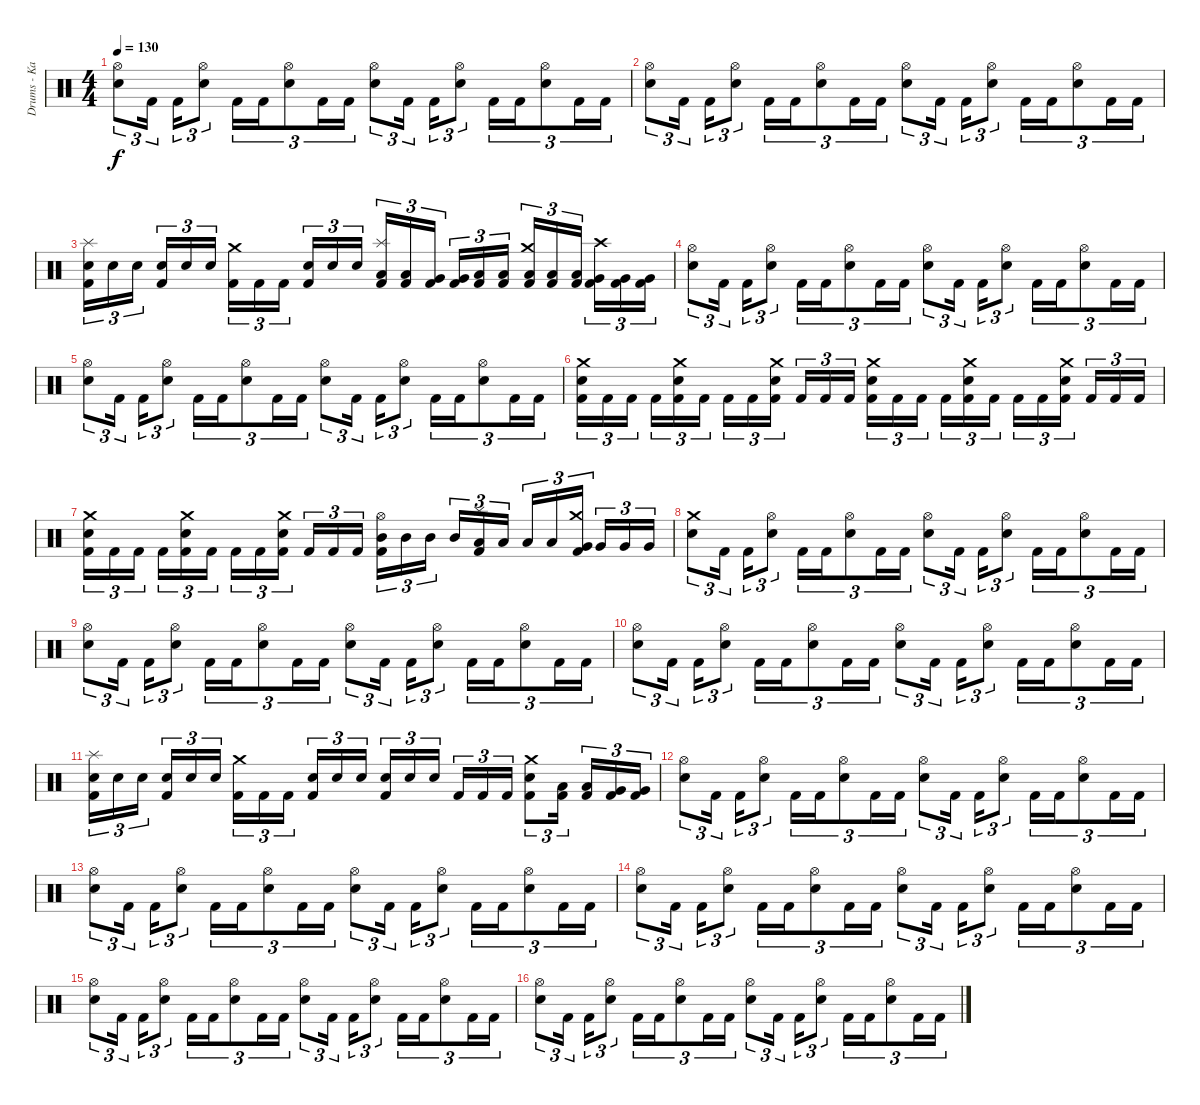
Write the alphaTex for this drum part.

\track ("Drums - Kai Hahto " "Drums - Ka") {instrument percussion}
\staff {score}
\articulation defaults
\ts (4 4)
\tempo 130
\clef neutral
\ks c
("Hi-Hat (open)" "Snare (hit) 2").8{tu (3 2) dy f} "Kick (hit) 2".16{tu (3 2) beam splitsecondary} "Kick (hit) 2".16{tu (3 2)} ("Hi-Hat (open)" "Snare (hit) 2").8{tu (3 2)} "Kick (hit) 2".16{tu (3 2)} "Kick (hit) 2".16{tu (3 2)} ("Hi-Hat (open)" "Snare (hit) 2").8{tu (3 2)} "Kick (hit) 2".16{tu (3 2)} "Kick (hit) 2".16{tu (3 2)} ("Hi-Hat (open)" "Snare (hit) 2").8{tu (3 2)} "Kick (hit) 2".16{tu (3 2) beam splitsecondary} "Kick (hit) 2".16{tu (3 2)} ("Hi-Hat (open)" "Snare (hit) 2").8{tu (3 2)} "Kick (hit) 2".16{tu (3 2)} "Kick (hit) 2".16{tu (3 2)} ("Hi-Hat (open)" "Snare (hit) 2").8{tu (3 2)} "Kick (hit) 2".16{tu (3 2)} "Kick (hit) 2".16{tu (3 2)} |
("Hi-Hat (open)" "Snare (hit) 2").8{tu (3 2)} "Kick (hit) 2".16{tu (3 2) beam splitsecondary} "Kick (hit) 2".16{tu (3 2)} ("Hi-Hat (open)" "Snare (hit) 2").8{tu (3 2)} "Kick (hit) 2".16{tu (3 2)} "Kick (hit) 2".16{tu (3 2)} ("Hi-Hat (open)" "Snare (hit) 2").8{tu (3 2)} "Kick (hit) 2".16{tu (3 2)} "Kick (hit) 2".16{tu (3 2)} ("Hi-Hat (open)" "Snare (hit) 2").8{tu (3 2)} "Kick (hit) 2".16{tu (3 2) beam splitsecondary} "Kick (hit) 2".16{tu (3 2)} ("Hi-Hat (open)" "Snare (hit) 2").8{tu (3 2)} "Kick (hit) 2".16{tu (3 2)} "Kick (hit) 2".16{tu (3 2)} ("Hi-Hat (open)" "Snare (hit) 2").8{tu (3 2)} "Kick (hit) 2".16{tu (3 2)} "Kick (hit) 2".16{tu (3 2)} |
("Splash (hit)" "Snare (hit) 2" "Kick (hit) 2").16{tu (3 2)} "Snare (hit) 2".16{tu (3 2)} "Snare (hit) 2".16{tu (3 2) beam splitsecondary} ("Snare (hit) 2" "Kick (hit) 2").16{tu (3 2)} "Snare (hit) 2".16{tu (3 2)} "Snare (hit) 2".16{tu (3 2)} ("Crash medium (hit)" "Kick (hit) 2").16{tu (3 2)} "Kick (hit) 2".16{tu (3 2)} "Kick (hit) 2".16{tu (3 2) beam splitsecondary} ("Snare (hit) 2" "Kick (hit) 2").16{tu (3 2)} "Snare (hit) 2".16{tu (3 2)} "Snare (hit) 2".16{tu (3 2)} ("Splash (hit)" "Low Tom (hit)" "Kick (hit) 2").16{tu (3 2)} ("Low Tom (hit)" "Kick (hit) 2").16{tu (3 2)} ("Very Low Tom (hit)" "Kick (hit) 2").16{tu (3 2) beam splitsecondary} ("Very Low Tom (hit)" "Kick (hit) 2").16{tu (3 2)} ("Low Floor Tom (hit)" "Kick (hit) 2").16{tu (3 2)} ("Low Floor Tom (hit)" "Kick (hit) 2").16{tu (3 2)} ("Crash medium (hit)" "Low Tom (hit)" "Kick (hit) 2").16{tu (3 2)} ("Low Tom (hit)" "Kick (hit) 2").16{tu (3 2)} ("Low Tom (hit)" "Kick (hit) 2").16{tu (3 2) beam splitsecondary} ("Crash high (hit)" "Very Low Tom (hit)" "Kick (hit) 2").16{tu (3 2)} ("Very Low Tom (hit)" "Kick (hit) 2").16{tu (3 2)} ("Very Low Tom (hit)" "Kick (hit) 2").16{tu (3 2)} |
("Hi-Hat (open)" "Snare (hit) 2").8{tu (3 2)} "Kick (hit) 2".16{tu (3 2) beam splitsecondary} "Kick (hit) 2".16{tu (3 2)} ("Hi-Hat (open)" "Snare (hit) 2").8{tu (3 2)} "Kick (hit) 2".16{tu (3 2)} "Kick (hit) 2".16{tu (3 2)} ("Hi-Hat (open)" "Snare (hit) 2").8{tu (3 2)} "Kick (hit) 2".16{tu (3 2)} "Kick (hit) 2".16{tu (3 2)} ("Hi-Hat (open)" "Snare (hit) 2").8{tu (3 2)} "Kick (hit) 2".16{tu (3 2) beam splitsecondary} "Kick (hit) 2".16{tu (3 2)} ("Hi-Hat (open)" "Snare (hit) 2").8{tu (3 2)} "Kick (hit) 2".16{tu (3 2)} "Kick (hit) 2".16{tu (3 2)} ("Hi-Hat (open)" "Snare (hit) 2").8{tu (3 2)} "Kick (hit) 2".16{tu (3 2)} "Kick (hit) 2".16{tu (3 2)} |
("Hi-Hat (open)" "Snare (hit) 2").8{tu (3 2)} "Kick (hit) 2".16{tu (3 2) beam splitsecondary} "Kick (hit) 2".16{tu (3 2)} ("Hi-Hat (open)" "Snare (hit) 2").8{tu (3 2)} "Kick (hit) 2".16{tu (3 2)} "Kick (hit) 2".16{tu (3 2)} ("Hi-Hat (open)" "Snare (hit) 2").8{tu (3 2)} "Kick (hit) 2".16{tu (3 2)} "Kick (hit) 2".16{tu (3 2)} ("Hi-Hat (open)" "Snare (hit) 2").8{tu (3 2)} "Kick (hit) 2".16{tu (3 2) beam splitsecondary} "Kick (hit) 2".16{tu (3 2)} ("Hi-Hat (open)" "Snare (hit) 2").8{tu (3 2)} "Kick (hit) 2".16{tu (3 2)} "Kick (hit) 2".16{tu (3 2)} ("Hi-Hat (open)" "Snare (hit) 2").8{tu (3 2)} "Kick (hit) 2".16{tu (3 2)} "Kick (hit) 2".16{tu (3 2)} |
("Crash medium (hit)" "Snare (hit) 2" "Kick (hit) 2").16{tu (3 2)} "Kick (hit) 2".16{tu (3 2)} "Kick (hit) 2".16{tu (3 2) beam splitsecondary} "Kick (hit) 2".16{tu (3 2)} ("Crash medium (hit)" "Snare (hit) 2" "Kick (hit) 2").16{tu (3 2)} "Kick (hit) 2".16{tu (3 2)} "Kick (hit) 2".16{tu (3 2)} "Kick (hit) 2".16{tu (3 2)} ("Crash medium (hit)" "Snare (hit) 2" "Kick (hit) 2").16{tu (3 2) beam splitsecondary} "Kick (hit) 2".16{tu (3 2)} "Kick (hit) 2".16{tu (3 2)} "Kick (hit) 2".16{tu (3 2)} ("Crash medium (hit)" "Snare (hit) 2" "Kick (hit) 2").16{tu (3 2)} "Kick (hit) 2".16{tu (3 2)} "Kick (hit) 2".16{tu (3 2) beam splitsecondary} "Kick (hit) 2".16{tu (3 2)} ("Crash medium (hit)" "Snare (hit) 2" "Kick (hit) 2").16{tu (3 2)} "Kick (hit) 2".16{tu (3 2)} "Kick (hit) 2".16{tu (3 2)} "Kick (hit) 2".16{tu (3 2)} ("Crash medium (hit)" "Snare (hit) 2" "Kick (hit) 2").16{tu (3 2) beam splitsecondary} "Kick (hit) 2".16{tu (3 2)} "Kick (hit) 2".16{tu (3 2)} "Kick (hit) 2".16{tu (3 2)} |
("Crash medium (hit)" "Snare (hit) 2" "Kick (hit) 2").16{tu (3 2)} "Kick (hit) 2".16{tu (3 2)} "Kick (hit) 2".16{tu (3 2) beam splitsecondary} "Kick (hit) 2".16{tu (3 2)} ("Crash medium (hit)" "Snare (hit) 2" "Kick (hit) 2").16{tu (3 2)} "Kick (hit) 2".16{tu (3 2)} "Kick (hit) 2".16{tu (3 2)} "Kick (hit) 2".16{tu (3 2)} ("Crash medium (hit)" "Snare (hit) 2" "Kick (hit) 2").16{tu (3 2) beam splitsecondary} "Kick (hit) 2".16{tu (3 2)} "Kick (hit) 2".16{tu (3 2)} "Kick (hit) 2".16{tu (3 2)} ("Hi-Hat (open)" "Mid Tom (hit)" "Kick (hit) 2").16{tu (3 2)} "Mid Tom (hit)".16{tu (3 2)} "Mid Tom (hit)".16{tu (3 2) beam splitsecondary} "Mid Tom (hit)".16{tu (3 2)} ("Splash (hit)" "Low Tom (hit)" "Kick (hit) 2").16{tu (3 2)} "Low Tom (hit)".16{tu (3 2)} "Low Tom (hit)".16{tu (3 2)} "Low Tom (hit)".16{tu (3 2)} ("Crash medium (hit)" "Very Low Tom (hit)" "Kick (hit) 2").16{tu (3 2) beam splitsecondary} "Very Low Tom (hit)".16{tu (3 2)} "Very Low Tom (hit)".16{tu (3 2)} "Very Low Tom (hit)".16{tu (3 2)} |
("Crash medium (hit)" "Snare (hit) 2").8{tu (3 2)} "Kick (hit) 2".16{tu (3 2) beam splitsecondary} "Kick (hit) 2".16{tu (3 2)} ("Hi-Hat (open)" "Snare (hit) 2").8{tu (3 2)} "Kick (hit) 2".16{tu (3 2)} "Kick (hit) 2".16{tu (3 2)} ("Hi-Hat (open)" "Snare (hit) 2").8{tu (3 2)} "Kick (hit) 2".16{tu (3 2)} "Kick (hit) 2".16{tu (3 2)} ("Hi-Hat (open)" "Snare (hit) 2").8{tu (3 2)} "Kick (hit) 2".16{tu (3 2) beam splitsecondary} "Kick (hit) 2".16{tu (3 2)} ("Hi-Hat (open)" "Snare (hit) 2").8{tu (3 2)} "Kick (hit) 2".16{tu (3 2)} "Kick (hit) 2".16{tu (3 2)} ("Hi-Hat (open)" "Snare (hit) 2").8{tu (3 2)} "Kick (hit) 2".16{tu (3 2)} "Kick (hit) 2".16{tu (3 2)} |
("Hi-Hat (open)" "Snare (hit) 2").8{tu (3 2)} "Kick (hit) 2".16{tu (3 2) beam splitsecondary} "Kick (hit) 2".16{tu (3 2)} ("Hi-Hat (open)" "Snare (hit) 2").8{tu (3 2)} "Kick (hit) 2".16{tu (3 2)} "Kick (hit) 2".16{tu (3 2)} ("Hi-Hat (open)" "Snare (hit) 2").8{tu (3 2)} "Kick (hit) 2".16{tu (3 2)} "Kick (hit) 2".16{tu (3 2)} ("Hi-Hat (open)" "Snare (hit) 2").8{tu (3 2)} "Kick (hit) 2".16{tu (3 2) beam splitsecondary} "Kick (hit) 2".16{tu (3 2)} ("Hi-Hat (open)" "Snare (hit) 2").8{tu (3 2)} "Kick (hit) 2".16{tu (3 2)} "Kick (hit) 2".16{tu (3 2)} ("Hi-Hat (open)" "Snare (hit) 2").8{tu (3 2)} "Kick (hit) 2".16{tu (3 2)} "Kick (hit) 2".16{tu (3 2)} |
("Hi-Hat (open)" "Snare (hit) 2").8{tu (3 2)} "Kick (hit) 2".16{tu (3 2) beam splitsecondary} "Kick (hit) 2".16{tu (3 2)} ("Hi-Hat (open)" "Snare (hit) 2").8{tu (3 2)} "Kick (hit) 2".16{tu (3 2)} "Kick (hit) 2".16{tu (3 2)} ("Hi-Hat (open)" "Snare (hit) 2").8{tu (3 2)} "Kick (hit) 2".16{tu (3 2)} "Kick (hit) 2".16{tu (3 2)} ("Hi-Hat (open)" "Snare (hit) 2").8{tu (3 2)} "Kick (hit) 2".16{tu (3 2) beam splitsecondary} "Kick (hit) 2".16{tu (3 2)} ("Hi-Hat (open)" "Snare (hit) 2").8{tu (3 2)} "Kick (hit) 2".16{tu (3 2)} "Kick (hit) 2".16{tu (3 2)} ("Hi-Hat (open)" "Snare (hit) 2").8{tu (3 2)} "Kick (hit) 2".16{tu (3 2)} "Kick (hit) 2".16{tu (3 2)} |
("Splash (hit)" "Snare (hit) 2" "Kick (hit) 2").16{tu (3 2)} "Snare (hit) 2".16{tu (3 2)} "Snare (hit) 2".16{tu (3 2) beam splitsecondary} ("Snare (hit) 2" "Kick (hit) 2").16{tu (3 2)} "Snare (hit) 2".16{tu (3 2)} "Snare (hit) 2".16{tu (3 2)} ("Crash medium (hit)" "Kick (hit) 2").16{tu (3 2)} "Kick (hit) 2".16{tu (3 2)} "Kick (hit) 2".16{tu (3 2) beam splitsecondary} ("Snare (hit) 2" "Kick (hit) 2").16{tu (3 2)} "Snare (hit) 2".16{tu (3 2)} "Snare (hit) 2".16{tu (3 2)} ("Snare (hit) 2" "Kick (hit) 2").16{tu (3 2)} "Snare (hit) 2".16{tu (3 2)} "Snare (hit) 2".16{tu (3 2) beam splitsecondary} "Kick (hit) 2".16{tu (3 2)} "Kick (hit) 2".16{tu (3 2)} "Kick (hit) 2".16{tu (3 2)} ("Crash medium (hit)" "Snare (hit) 2" "Kick (hit) 2").8{tu (3 2)} ("Low Tom (hit)" "Kick (hit) 2").16{tu (3 2) beam splitsecondary} ("Low Tom (hit)" "Kick (hit) 2").16{tu (3 2)} ("Very Low Tom (hit)" "Kick (hit) 2").16{tu (3 2)} ("Very Low Tom (hit)" "Kick (hit) 2").16{tu (3 2)} |
("Hi-Hat (open)" "Snare (hit) 2").8{tu (3 2)} "Kick (hit) 2".16{tu (3 2) beam splitsecondary} "Kick (hit) 2".16{tu (3 2)} ("Hi-Hat (open)" "Snare (hit) 2").8{tu (3 2)} "Kick (hit) 2".16{tu (3 2)} "Kick (hit) 2".16{tu (3 2)} ("Hi-Hat (open)" "Snare (hit) 2").8{tu (3 2)} "Kick (hit) 2".16{tu (3 2)} "Kick (hit) 2".16{tu (3 2)} ("Hi-Hat (open)" "Snare (hit) 2").8{tu (3 2)} "Kick (hit) 2".16{tu (3 2) beam splitsecondary} "Kick (hit) 2".16{tu (3 2)} ("Hi-Hat (open)" "Snare (hit) 2").8{tu (3 2)} "Kick (hit) 2".16{tu (3 2)} "Kick (hit) 2".16{tu (3 2)} ("Hi-Hat (open)" "Snare (hit) 2").8{tu (3 2)} "Kick (hit) 2".16{tu (3 2)} "Kick (hit) 2".16{tu (3 2)} |
("Hi-Hat (open)" "Snare (hit) 2").8{tu (3 2)} "Kick (hit) 2".16{tu (3 2) beam splitsecondary} "Kick (hit) 2".16{tu (3 2)} ("Hi-Hat (open)" "Snare (hit) 2").8{tu (3 2)} "Kick (hit) 2".16{tu (3 2)} "Kick (hit) 2".16{tu (3 2)} ("Hi-Hat (open)" "Snare (hit) 2").8{tu (3 2)} "Kick (hit) 2".16{tu (3 2)} "Kick (hit) 2".16{tu (3 2)} ("Hi-Hat (open)" "Snare (hit) 2").8{tu (3 2)} "Kick (hit) 2".16{tu (3 2) beam splitsecondary} "Kick (hit) 2".16{tu (3 2)} ("Hi-Hat (open)" "Snare (hit) 2").8{tu (3 2)} "Kick (hit) 2".16{tu (3 2)} "Kick (hit) 2".16{tu (3 2)} ("Hi-Hat (open)" "Snare (hit) 2").8{tu (3 2)} "Kick (hit) 2".16{tu (3 2)} "Kick (hit) 2".16{tu (3 2)} |
("Hi-Hat (open)" "Snare (hit) 2").8{tu (3 2)} "Kick (hit) 2".16{tu (3 2) beam splitsecondary} "Kick (hit) 2".16{tu (3 2)} ("Hi-Hat (open)" "Snare (hit) 2").8{tu (3 2)} "Kick (hit) 2".16{tu (3 2)} "Kick (hit) 2".16{tu (3 2)} ("Hi-Hat (open)" "Snare (hit) 2").8{tu (3 2)} "Kick (hit) 2".16{tu (3 2)} "Kick (hit) 2".16{tu (3 2)} ("Hi-Hat (open)" "Snare (hit) 2").8{tu (3 2)} "Kick (hit) 2".16{tu (3 2) beam splitsecondary} "Kick (hit) 2".16{tu (3 2)} ("Hi-Hat (open)" "Snare (hit) 2").8{tu (3 2)} "Kick (hit) 2".16{tu (3 2)} "Kick (hit) 2".16{tu (3 2)} ("Hi-Hat (open)" "Snare (hit) 2").8{tu (3 2)} "Kick (hit) 2".16{tu (3 2)} "Kick (hit) 2".16{tu (3 2)} |
("Hi-Hat (open)" "Snare (hit) 2").8{tu (3 2)} "Kick (hit) 2".16{tu (3 2) beam splitsecondary} "Kick (hit) 2".16{tu (3 2)} ("Hi-Hat (open)" "Snare (hit) 2").8{tu (3 2)} "Kick (hit) 2".16{tu (3 2)} "Kick (hit) 2".16{tu (3 2)} ("Hi-Hat (open)" "Snare (hit) 2").8{tu (3 2)} "Kick (hit) 2".16{tu (3 2)} "Kick (hit) 2".16{tu (3 2)} ("Hi-Hat (open)" "Snare (hit) 2").8{tu (3 2)} "Kick (hit) 2".16{tu (3 2) beam splitsecondary} "Kick (hit) 2".16{tu (3 2)} ("Hi-Hat (open)" "Snare (hit) 2").8{tu (3 2)} "Kick (hit) 2".16{tu (3 2)} "Kick (hit) 2".16{tu (3 2)} ("Hi-Hat (open)" "Snare (hit) 2").8{tu (3 2)} "Kick (hit) 2".16{tu (3 2)} "Kick (hit) 2".16{tu (3 2)} |
("Hi-Hat (open)" "Snare (hit) 2").8{tu (3 2)} "Kick (hit) 2".16{tu (3 2) beam splitsecondary} "Kick (hit) 2".16{tu (3 2)} ("Hi-Hat (open)" "Snare (hit) 2").8{tu (3 2)} "Kick (hit) 2".16{tu (3 2)} "Kick (hit) 2".16{tu (3 2)} ("Hi-Hat (open)" "Snare (hit) 2").8{tu (3 2)} "Kick (hit) 2".16{tu (3 2)} "Kick (hit) 2".16{tu (3 2)} ("Hi-Hat (open)" "Snare (hit) 2").8{tu (3 2)} "Kick (hit) 2".16{tu (3 2) beam splitsecondary} "Kick (hit) 2".16{tu (3 2)} ("Hi-Hat (open)" "Snare (hit) 2").8{tu (3 2)} "Kick (hit) 2".16{tu (3 2)} "Kick (hit) 2".16{tu (3 2)} ("Hi-Hat (open)" "Snare (hit) 2").8{tu (3 2)} "Kick (hit) 2".16{tu (3 2)} "Kick (hit) 2".16{tu (3 2)}
